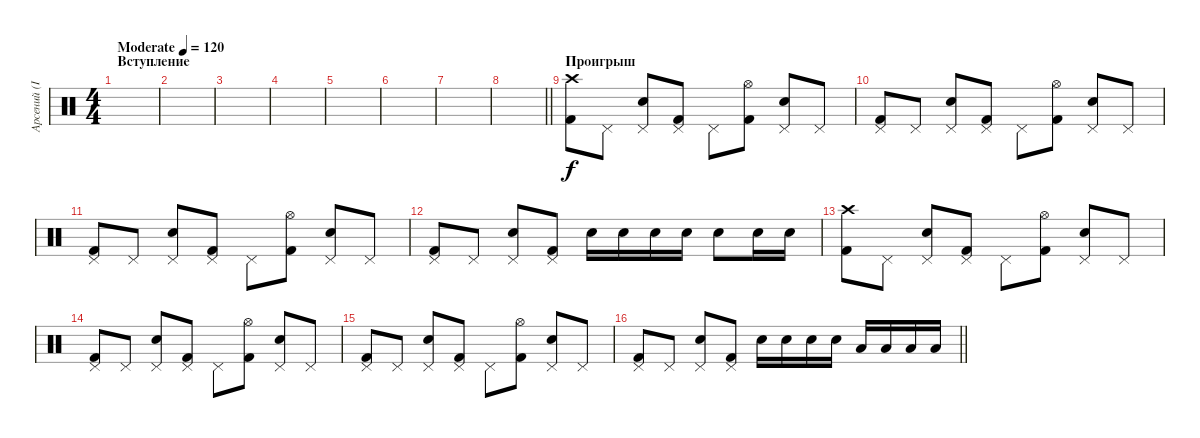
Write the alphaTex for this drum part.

\track ("Арсений (Idler) Ударные" "Арсений (I") {instrument percussion}
\staff {score}
\articulation defaults
\ts (4 4)
\section ("" "Вступление")
\tempo (120 "Moderate")
\clef neutral
\ks c
|
|
|
|
|
|
|
\barLineRight lightlight
|
\section ("" "Проигрыш")
("Crash high (hit)" "Kick (hit) 2").8 "Pedal Hi-Hat (hit)".8 ("Pedal Hi-Hat (hit)" "Snare (hit) 2").8 ("Pedal Hi-Hat (hit)" "Kick (hit) 2").8 "Pedal Hi-Hat (hit)".8 ("Hi-Hat (open)" "Kick (hit) 2").8 ("Pedal Hi-Hat (hit)" "Snare (hit) 2").8 "Pedal Hi-Hat (hit)".8 |
("Pedal Hi-Hat (hit)" "Kick (hit) 2").8 "Pedal Hi-Hat (hit)".8 ("Pedal Hi-Hat (hit)" "Snare (hit) 2").8 ("Pedal Hi-Hat (hit)" "Kick (hit) 2").8 "Pedal Hi-Hat (hit)".8 ("Hi-Hat (open)" "Kick (hit) 2").8 ("Pedal Hi-Hat (hit)" "Snare (hit) 2").8 "Pedal Hi-Hat (hit)".8 |
("Pedal Hi-Hat (hit)" "Kick (hit) 2").8 "Pedal Hi-Hat (hit)".8 ("Pedal Hi-Hat (hit)" "Snare (hit) 2").8 ("Pedal Hi-Hat (hit)" "Kick (hit) 2").8 "Pedal Hi-Hat (hit)".8 ("Hi-Hat (open)" "Kick (hit) 2").8 ("Pedal Hi-Hat (hit)" "Snare (hit) 2").8 "Pedal Hi-Hat (hit)".8 |
("Pedal Hi-Hat (hit)" "Kick (hit) 2").8 "Pedal Hi-Hat (hit)".8 ("Pedal Hi-Hat (hit)" "Snare (hit) 2").8 ("Pedal Hi-Hat (hit)" "Kick (hit) 2").8 "Snare (hit) 2".16 "Snare (hit) 2".16 "Snare (hit) 2".16 "Snare (hit) 2".16 "Snare (hit) 2".8 "Snare (hit) 2".16 "Snare (hit) 2".16 |
("Crash high (hit)" "Kick (hit) 2").8 "Pedal Hi-Hat (hit)".8 ("Pedal Hi-Hat (hit)" "Snare (hit) 2").8 ("Pedal Hi-Hat (hit)" "Kick (hit) 2").8 "Pedal Hi-Hat (hit)".8 ("Hi-Hat (open)" "Kick (hit) 2").8 ("Pedal Hi-Hat (hit)" "Snare (hit) 2").8 "Pedal Hi-Hat (hit)".8 |
("Pedal Hi-Hat (hit)" "Kick (hit) 2").8 "Pedal Hi-Hat (hit)".8 ("Pedal Hi-Hat (hit)" "Snare (hit) 2").8 ("Pedal Hi-Hat (hit)" "Kick (hit) 2").8 "Pedal Hi-Hat (hit)".8 ("Hi-Hat (open)" "Kick (hit) 2").8 ("Pedal Hi-Hat (hit)" "Snare (hit) 2").8 "Pedal Hi-Hat (hit)".8 |
("Pedal Hi-Hat (hit)" "Kick (hit) 2").8 "Pedal Hi-Hat (hit)".8 ("Pedal Hi-Hat (hit)" "Snare (hit) 2").8 ("Pedal Hi-Hat (hit)" "Kick (hit) 2").8 "Pedal Hi-Hat (hit)".8 ("Hi-Hat (open)" "Kick (hit) 2").8 ("Pedal Hi-Hat (hit)" "Snare (hit) 2").8 "Pedal Hi-Hat (hit)".8 |
\barLineRight lightlight
("Pedal Hi-Hat (hit)" "Kick (hit) 2").8 "Pedal Hi-Hat (hit)".8 ("Pedal Hi-Hat (hit)" "Snare (hit) 2").8 ("Pedal Hi-Hat (hit)" "Kick (hit) 2").8 "Snare (hit) 2".16 "Snare (hit) 2".16 "Snare (hit) 2".16 "Snare (hit) 2".16 "Low Tom (hit)".16 "Low Tom (hit)".16 "Low Floor Tom (hit)".16 "Low Floor Tom (hit)".16
